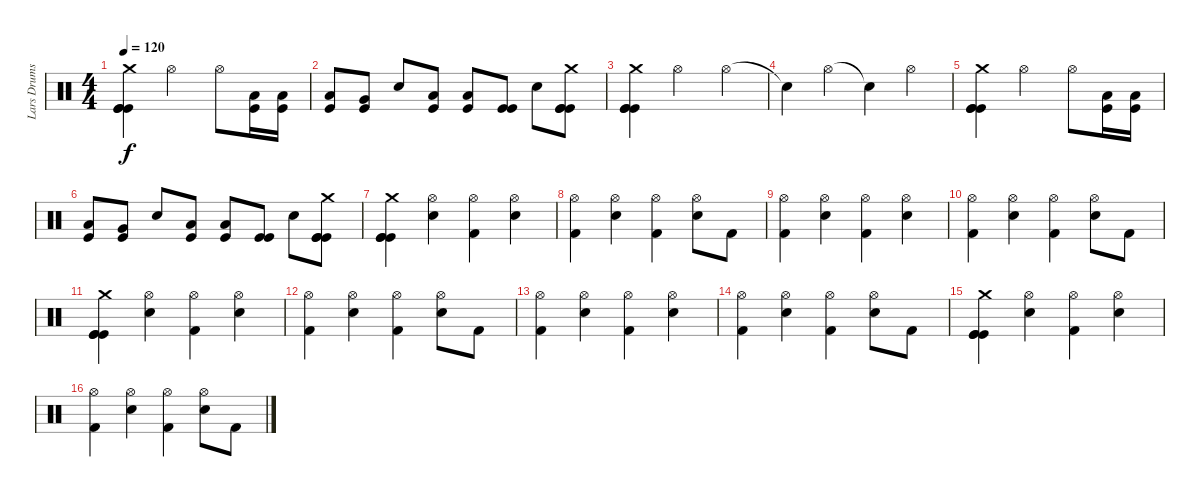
\track ("Lars Drums" "Lars Drums") {instrument percussion}
\staff {score}
\articulation defaults
\ts (4 4)
\tempo 120
\clef neutral
\ks c
("Kick (hit)" "Kick (hit)" "Kick (hit)" "Crash medium (hit)").4{dy f} "Hi-Hat (open)".2 "Hi-Hat (open)".8 ("Low Tom (hit)" "Kick (hit)").16 ("Low Tom (hit)" "Kick (hit)").16 |
("Low Tom (hit)" "Kick (hit)").8 ("Very Low Tom (hit)" "Kick (hit)").8 "Electric Snare (hit)".8 ("Low Tom (hit)" "Kick (hit)").8 ("Low Tom (hit)" "Kick (hit)").8 ("Kick (hit)" "Kick (hit)").8 "Electric Snare (hit)".8 ("Kick (hit)" "Kick (hit)" "Kick (hit)" "Crash medium (hit)").8 |
("Kick (hit)" "Kick (hit)" "Kick (hit)" "Crash medium (hit)").4 "Hi-Hat (open)".2 "Hi-Hat (open)".4 |
"Snare (hit)"{t}.4 "Hi-Hat (open)".4 "Snare (hit)"{t}.4 "Hi-Hat (open)".4 |
("Kick (hit)" "Kick (hit)" "Kick (hit)" "Crash medium (hit)").4 "Hi-Hat (open)".2 "Hi-Hat (open)".8 ("Low Tom (hit)" "Kick (hit)").16 ("Low Tom (hit)" "Kick (hit)").16 |
("Low Tom (hit)" "Kick (hit)").8 ("Very Low Tom (hit)" "Kick (hit)").8 "Electric Snare (hit)".8 ("Low Tom (hit)" "Kick (hit)").8 ("Low Tom (hit)" "Kick (hit)").8 ("Kick (hit)" "Kick (hit)").8 "Electric Snare (hit)".8 ("Kick (hit)" "Kick (hit)" "Kick (hit)" "Crash medium (hit)").8 |
("Kick (hit)" "Kick (hit)" "Kick (hit)" "Crash medium (hit)").4 ("Hi-Hat (open)" "Electric Snare (hit)").4 ("Hi-Hat (open)" "Kick (hit) 2").4 ("Hi-Hat (open)" "Electric Snare (hit)").4 |
("Hi-Hat (open)" "Kick (hit) 2").4 ("Hi-Hat (open)" "Electric Snare (hit)").4 ("Hi-Hat (open)" "Kick (hit) 2").4 ("Hi-Hat (open)" "Electric Snare (hit)").8 "Kick (hit) 2".8 |
("Hi-Hat (open)" "Kick (hit) 2").4 ("Hi-Hat (open)" "Electric Snare (hit)").4 ("Hi-Hat (open)" "Kick (hit) 2").4 ("Hi-Hat (open)" "Electric Snare (hit)").4 |
("Hi-Hat (open)" "Kick (hit) 2").4 ("Hi-Hat (open)" "Electric Snare (hit)").4 ("Hi-Hat (open)" "Kick (hit) 2").4 ("Hi-Hat (open)" "Electric Snare (hit)").8 "Kick (hit) 2".8 |
("Kick (hit)" "Kick (hit)" "Kick (hit)" "Crash medium (hit)").4 ("Hi-Hat (open)" "Electric Snare (hit)").4 ("Hi-Hat (open)" "Kick (hit) 2").4 ("Hi-Hat (open)" "Electric Snare (hit)").4 |
("Hi-Hat (open)" "Kick (hit) 2").4 ("Hi-Hat (open)" "Electric Snare (hit)").4 ("Hi-Hat (open)" "Kick (hit) 2").4 ("Hi-Hat (open)" "Electric Snare (hit)").8 "Kick (hit) 2".8 |
("Hi-Hat (open)" "Kick (hit) 2").4 ("Hi-Hat (open)" "Electric Snare (hit)").4 ("Hi-Hat (open)" "Kick (hit) 2").4 ("Hi-Hat (open)" "Electric Snare (hit)").4 |
("Hi-Hat (open)" "Kick (hit) 2").4 ("Hi-Hat (open)" "Electric Snare (hit)").4 ("Hi-Hat (open)" "Kick (hit) 2").4 ("Hi-Hat (open)" "Electric Snare (hit)").8 "Kick (hit) 2".8 |
("Kick (hit)" "Kick (hit)" "Kick (hit)" "Crash medium (hit)").4 ("Hi-Hat (open)" "Electric Snare (hit)").4 ("Hi-Hat (open)" "Kick (hit) 2").4 ("Hi-Hat (open)" "Electric Snare (hit)").4 |
("Hi-Hat (open)" "Kick (hit) 2").4 ("Hi-Hat (open)" "Electric Snare (hit)").4 ("Hi-Hat (open)" "Kick (hit) 2").4 ("Hi-Hat (open)" "Electric Snare (hit)").8 "Kick (hit) 2".8
